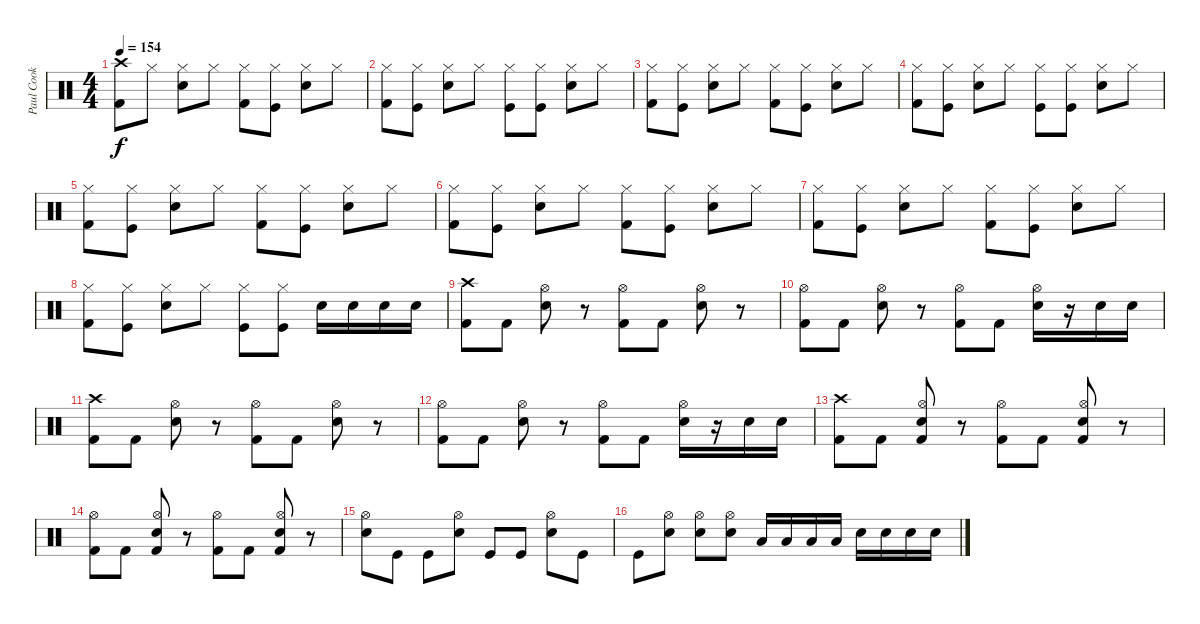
\track ("Paul Cook" "Paul Cook") {instrument percussion}
\staff {score}
\articulation defaults
\ts (4 4)
\tempo 154
\clef neutral
\ks c
("Crash high (hit)" "Kick (hit) 2").8{dy f} "Hi-Hat (closed)".8 ("Hi-Hat (closed)" "Snare (hit) 2").8 "Hi-Hat (closed)".8 ("Hi-Hat (closed)" "Kick (hit) 2").8 ("Kick (hit)" "Hi-Hat (closed)").8 ("Hi-Hat (closed)" "Snare (hit) 2").8 "Hi-Hat (closed)".8 |
("Hi-Hat (closed)" "Kick (hit) 2").8 ("Kick (hit)" "Hi-Hat (closed)").8 ("Hi-Hat (closed)" "Snare (hit) 2").8 "Hi-Hat (closed)".8 ("Kick (hit)" "Hi-Hat (closed)").8 ("Kick (hit)" "Hi-Hat (closed)").8 ("Snare (hit) 2" "Hi-Hat (closed)").8 "Hi-Hat (closed)".8 |
("Hi-Hat (closed)" "Kick (hit) 2").8 ("Kick (hit)" "Hi-Hat (closed)").8 ("Hi-Hat (closed)" "Snare (hit) 2").8 "Hi-Hat (closed)".8 ("Hi-Hat (closed)" "Kick (hit) 2").8 ("Kick (hit)" "Hi-Hat (closed)").8 ("Hi-Hat (closed)" "Snare (hit) 2").8 "Hi-Hat (closed)".8 |
("Hi-Hat (closed)" "Kick (hit) 2").8 ("Kick (hit)" "Hi-Hat (closed)").8 ("Hi-Hat (closed)" "Snare (hit) 2").8 "Hi-Hat (closed)".8 ("Kick (hit)" "Hi-Hat (closed)").8 ("Kick (hit)" "Hi-Hat (closed)").8 ("Snare (hit) 2" "Hi-Hat (closed)").8 "Hi-Hat (closed)".8 |
("Hi-Hat (closed)" "Kick (hit) 2").8 ("Kick (hit)" "Hi-Hat (closed)").8 ("Hi-Hat (closed)" "Snare (hit) 2").8 "Hi-Hat (closed)".8 ("Hi-Hat (closed)" "Kick (hit) 2").8 ("Kick (hit)" "Hi-Hat (closed)").8 ("Hi-Hat (closed)" "Snare (hit) 2").8 "Hi-Hat (closed)".8 |
("Hi-Hat (closed)" "Kick (hit) 2").8 ("Kick (hit)" "Hi-Hat (closed)").8 ("Hi-Hat (closed)" "Snare (hit) 2").8 "Hi-Hat (closed)".8 ("Hi-Hat (closed)" "Kick (hit) 2").8 ("Kick (hit)" "Hi-Hat (closed)").8 ("Hi-Hat (closed)" "Snare (hit) 2").8 "Hi-Hat (closed)".8 |
("Hi-Hat (closed)" "Kick (hit) 2").8 ("Kick (hit)" "Hi-Hat (closed)").8 ("Hi-Hat (closed)" "Snare (hit) 2").8 "Hi-Hat (closed)".8 ("Hi-Hat (closed)" "Kick (hit) 2").8 ("Kick (hit)" "Hi-Hat (closed)").8 ("Hi-Hat (closed)" "Snare (hit) 2").8 "Hi-Hat (closed)".8 |
("Hi-Hat (closed)" "Kick (hit) 2").8 ("Kick (hit)" "Hi-Hat (closed)").8 ("Hi-Hat (closed)" "Snare (hit) 2").8 "Hi-Hat (closed)".8 ("Kick (hit)" "Hi-Hat (closed)").8 ("Kick (hit)" "Hi-Hat (closed)").8 "Snare (hit) 2".16 "Snare (hit) 2".16 "Snare (hit) 2".16 "Snare (hit) 2".16 |
("Crash high (hit)" "Kick (hit) 2").8 "Kick (hit) 2".8 ("Hi-Hat (open)" "Electric Snare (hit)").8 r.8 ("Hi-Hat (open)" "Kick (hit) 2").8 "Kick (hit) 2".8 ("Hi-Hat (open)" "Electric Snare (hit)").8 r.8 |
("Hi-Hat (open)" "Kick (hit) 2").8 "Kick (hit) 2".8 ("Hi-Hat (open)" "Electric Snare (hit)").8 r.8 ("Hi-Hat (open)" "Kick (hit) 2").8 "Kick (hit) 2".8 ("Hi-Hat (open)" "Electric Snare (hit)").16 r.16 "Snare (hit) 2".16 "Snare (hit) 2".16 |
("Crash high (hit)" "Kick (hit) 2").8 "Kick (hit) 2".8 ("Hi-Hat (open)" "Electric Snare (hit)").8 r.8 ("Hi-Hat (open)" "Kick (hit) 2").8 "Kick (hit) 2".8 ("Hi-Hat (open)" "Electric Snare (hit)").8 r.8 |
("Hi-Hat (open)" "Kick (hit) 2").8 "Kick (hit) 2".8 ("Hi-Hat (open)" "Electric Snare (hit)").8 r.8 ("Hi-Hat (open)" "Kick (hit) 2").8 "Kick (hit) 2".8 ("Hi-Hat (open)" "Electric Snare (hit)").16 r.16 "Snare (hit) 2".16 "Snare (hit) 2".16 |
("Crash high (hit)" "Kick (hit) 2").8 "Kick (hit) 2".8 ("Hi-Hat (open)" "Electric Snare (hit)" "Kick (hit) 2").8 r.8 ("Hi-Hat (open)" "Kick (hit) 2").8 "Kick (hit) 2".8 ("Hi-Hat (open)" "Electric Snare (hit)" "Kick (hit) 2").8 r.8 |
("Hi-Hat (open)" "Kick (hit) 2").8 "Kick (hit) 2".8 ("Hi-Hat (open)" "Electric Snare (hit)" "Kick (hit) 2").8 r.8 ("Hi-Hat (open)" "Kick (hit) 2").8 "Kick (hit) 2".8 ("Hi-Hat (open)" "Electric Snare (hit)" "Kick (hit) 2").8 r.8 |
("Hi-Hat (open)" "Snare (hit) 2").8 "Kick (hit)".8 "Kick (hit)".8 ("Hi-Hat (open)" "Snare (hit) 2").8 "Kick (hit)".8 "Kick (hit)".8 ("Snare (hit) 2" "Hi-Hat (open)").8 "Kick (hit)".8 |
"Kick (hit)".8 ("Hi-Hat (open)" "Snare (hit) 2").8 ("Snare (hit) 2" "Hi-Hat (open)").8 ("Snare (hit) 2" "Hi-Hat (open)").8 "Low Tom (hit)".16 "Low Tom (hit)".16 "Low Tom (hit)".16 "Low Tom (hit)".16 "Snare (hit) 2".16 "Snare (hit) 2".16 "Snare (hit) 2".16 "Snare (hit) 2".16
